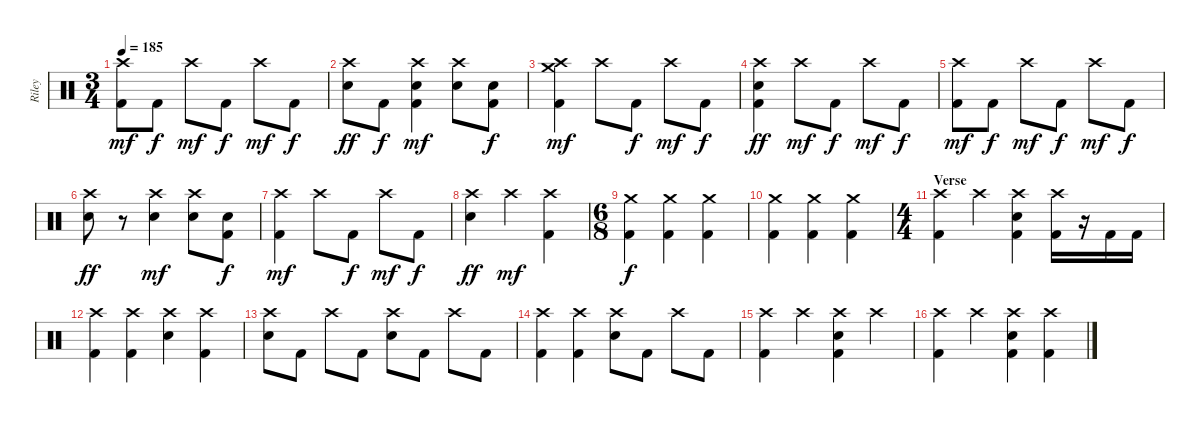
\track ("Riley" "Riley") {instrument percussion}
\staff {score}
\articulation defaults
\ts (3 4)
\tempo 185
\clef neutral
\ks c
("Crash high (hit)" "Kick (hit) 2").8{dy mf} "Kick (hit) 2".8{dy f} "Crash high (hit)".8{dy mf} "Kick (hit) 2".8{dy f} "Crash high (hit)".8{dy mf} "Kick (hit) 2".8{dy f} |
("Crash high (hit)" "Electric Snare (hit)").8{dy ff} "Kick (hit) 2".8{dy f} ("Crash high (hit)" "Electric Snare (hit)" "Kick (hit) 2").4{dy mf} ("Crash high (hit)" "Electric Snare (hit)").8 ("Electric Snare (hit)" "Kick (hit) 2").8{dy f} |
("Crash high (hit)" "Crash medium (hit)" "Kick (hit) 2").4{dy mf} "Crash high (hit)".8 "Kick (hit) 2".8{dy f} "Crash high (hit)".8{dy mf} "Kick (hit) 2".8{dy f} |
("Crash high (hit)" "Electric Snare (hit)" "Kick (hit) 2").4{dy ff} "Crash high (hit)".8{dy mf} "Kick (hit) 2".8{dy f} "Crash high (hit)".8{dy mf} "Kick (hit) 2".8{dy f} |
("Crash high (hit)" "Kick (hit) 2").8{dy mf} "Kick (hit) 2".8{dy f} "Crash high (hit)".8{dy mf} "Kick (hit) 2".8{dy f} "Crash high (hit)".8{dy mf} "Kick (hit) 2".8{dy f} |
("Crash high (hit)" "Electric Snare (hit)").8{dy ff} r.8 ("Crash high (hit)" "Electric Snare (hit)").4{dy mf} ("Crash high (hit)" "Electric Snare (hit)").8 ("Electric Snare (hit)" "Kick (hit) 2").8{dy f} |
("Crash high (hit)" "Kick (hit) 2").4{dy mf} "Crash high (hit)".8 "Kick (hit) 2".8{dy f} "Crash high (hit)".8{dy mf} "Kick (hit) 2".8{dy f} |
("Crash high (hit)" "Electric Snare (hit)").4{dy ff} "Crash high (hit)".4{dy mf} ("Crash high (hit)" "Kick (hit) 2").4 |
\ts (6 8)
("Crash medium (hit)" "Kick (hit) 2").4{dy f} ("Crash medium (hit)" "Kick (hit) 2").4 ("Crash medium (hit)" "Kick (hit) 2").4 |
("Crash medium (hit)" "Kick (hit) 2").4 ("Crash medium (hit)" "Kick (hit) 2").4 ("Crash medium (hit)" "Kick (hit) 2").4 |
\ts (4 4)
\section ("" "Verse")
("Crash high (hit)" "Kick (hit) 2").4 "Crash high (hit)".4 ("Crash high (hit)" "Electric Snare (hit)" "Kick (hit) 2").4 ("Crash high (hit)" "Kick (hit) 2").16 r.16 "Kick (hit) 2".16 "Kick (hit) 2".16 |
("Crash high (hit)" "Kick (hit) 2").4 ("Crash high (hit)" "Kick (hit) 2").4 ("Crash high (hit)" "Electric Snare (hit)").4 ("Crash high (hit)" "Kick (hit) 2").4 |
("Crash high (hit)" "Electric Snare (hit)").8 "Kick (hit) 2".8 "Crash high (hit)".8 "Kick (hit) 2".8 ("Crash high (hit)" "Electric Snare (hit)").8 "Kick (hit) 2".8 "Crash high (hit)".8 "Kick (hit) 2".8 |
("Crash high (hit)" "Kick (hit) 2").4 ("Crash high (hit)" "Kick (hit) 2").4 ("Crash high (hit)" "Electric Snare (hit)").8 "Kick (hit) 2".8 "Crash high (hit)".8 "Kick (hit) 2".8 |
("Crash high (hit)" "Kick (hit) 2").4 "Crash high (hit)".4 ("Crash high (hit)" "Electric Snare (hit)" "Kick (hit) 2").4 "Crash high (hit)".4 |
("Crash high (hit)" "Kick (hit) 2").4 "Crash high (hit)".4 ("Crash high (hit)" "Electric Snare (hit)" "Kick (hit) 2").4 ("Crash high (hit)" "Kick (hit) 2").4
